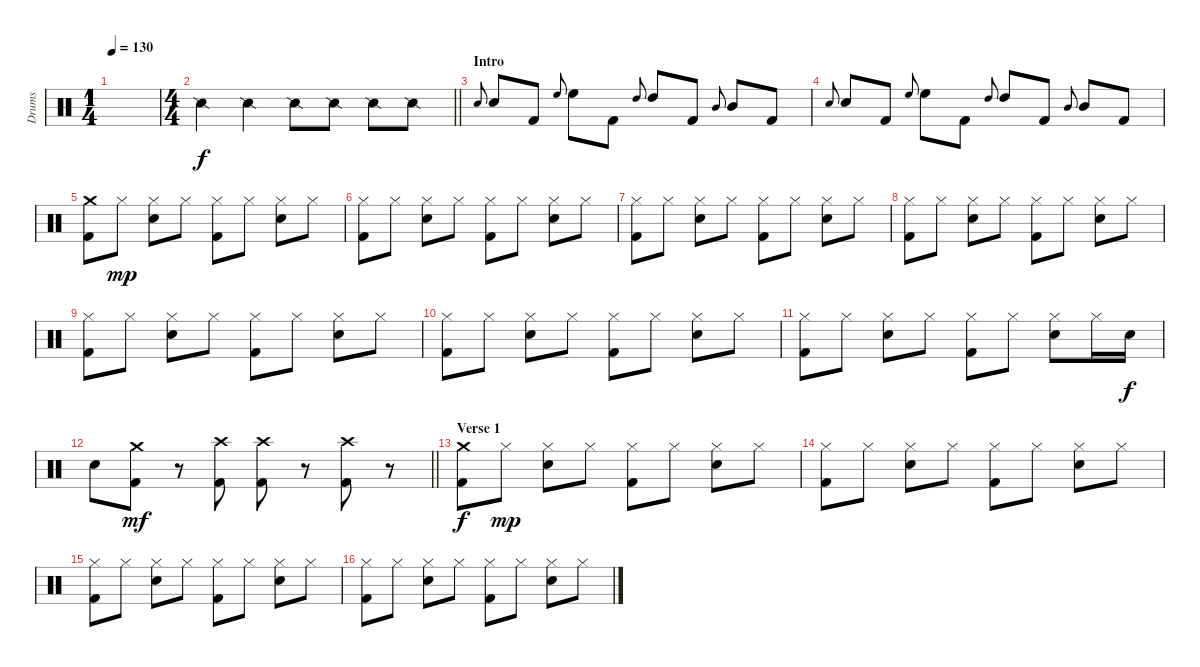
\track ("Drums" "Drums") {instrument percussion}
\staff {score}
\articulation defaults
\ts (1 4)
\tempo 130
\clef neutral
\ks c
|
\ts (4 4)
\barLineRight lightlight "Snare (side stick) 2".4 "Snare (side stick) 2".4 "Snare (side stick) 2".8 "Snare (side stick) 2".8 "Snare (side stick) 2".8 "Snare (side stick) 2".8
|
\section ("" "Intro")
"Snare (hit) 2".8{gr onbeat} "Snare (hit) 2".8 "Kick (hit) 2".8 "High Floor Tom (hit)".8{gr onbeat} "High Floor Tom (hit)".8 "Kick (hit) 2".8 "High Tom (hit)".8{gr onbeat} "High Tom (hit)".8 "Kick (hit) 2".8 "Mid Tom (hit)".8{gr onbeat} "Mid Tom (hit)".8 "Kick (hit) 2".8 |
"Snare (hit) 2".8{gr onbeat} "Snare (hit) 2".8 "Kick (hit) 2".8 "High Floor Tom (hit)".8{gr onbeat} "High Floor Tom (hit)".8 "Kick (hit) 2".8 "High Tom (hit)".8{gr onbeat} "High Tom (hit)".8 "Kick (hit) 2".8 "Mid Tom (hit)".8{gr onbeat} "Mid Tom (hit)".8 "Kick (hit) 2".8 |
("Crash medium (hit)" "Kick (hit) 2").8 "Hi-Hat (closed)".8{dy mp} ("Hi-Hat (closed)" "Snare (hit) 2").8 "Hi-Hat (closed)".8 ("Hi-Hat (closed)" "Kick (hit) 2").8 "Hi-Hat (closed)".8 ("Hi-Hat (closed)" "Snare (hit) 2").8 "Hi-Hat (closed)".8 |
("Hi-Hat (closed)" "Kick (hit) 2").8 "Hi-Hat (closed)".8 ("Hi-Hat (closed)" "Snare (hit) 2").8 "Hi-Hat (closed)".8 ("Hi-Hat (closed)" "Kick (hit) 2").8 "Hi-Hat (closed)".8 ("Hi-Hat (closed)" "Snare (hit) 2").8 "Hi-Hat (closed)".8 |
("Hi-Hat (closed)" "Kick (hit) 2").8 "Hi-Hat (closed)".8 ("Hi-Hat (closed)" "Snare (hit) 2").8 "Hi-Hat (closed)".8 ("Hi-Hat (closed)" "Kick (hit) 2").8 "Hi-Hat (closed)".8 ("Hi-Hat (closed)" "Snare (hit) 2").8 "Hi-Hat (closed)".8 |
("Hi-Hat (closed)" "Kick (hit) 2").8 "Hi-Hat (closed)".8 ("Hi-Hat (closed)" "Snare (hit) 2").8 "Hi-Hat (closed)".8 ("Hi-Hat (closed)" "Kick (hit) 2").8 "Hi-Hat (closed)".8 ("Hi-Hat (closed)" "Snare (hit) 2").8 "Hi-Hat (closed)".8 |
("Hi-Hat (closed)" "Kick (hit) 2").8 "Hi-Hat (closed)".8 ("Hi-Hat (closed)" "Snare (hit) 2").8 "Hi-Hat (closed)".8 ("Hi-Hat (closed)" "Kick (hit) 2").8 "Hi-Hat (closed)".8 ("Hi-Hat (closed)" "Snare (hit) 2").8 "Hi-Hat (closed)".8 |
("Hi-Hat (closed)" "Kick (hit) 2").8 "Hi-Hat (closed)".8 ("Hi-Hat (closed)" "Snare (hit) 2").8 "Hi-Hat (closed)".8 ("Hi-Hat (closed)" "Kick (hit) 2").8 "Hi-Hat (closed)".8 ("Hi-Hat (closed)" "Snare (hit) 2").8 "Hi-Hat (closed)".8 |
("Hi-Hat (closed)" "Kick (hit) 2").8 "Hi-Hat (closed)".8 ("Hi-Hat (closed)" "Snare (hit) 2").8 "Hi-Hat (closed)".8 ("Hi-Hat (closed)" "Kick (hit) 2").8 "Hi-Hat (closed)".8 ("Hi-Hat (closed)" "Snare (hit) 2").8 "Hi-Hat (closed)".16 "Snare (hit) 2".16{dy f} |
\barLineRight lightlight "Snare (hit) 2".8
("Crash medium (hit)" "Kick (hit) 2").8{dy mf} r.8 ("Crash high (hit)" "Kick (hit) 2").8 ("Crash high (hit)" "Kick (hit) 2").8 r.8 ("Crash high (hit)" "Kick (hit) 2").8 r.8 |
\section ("" "Verse 1")
("Crash medium (hit)" "Kick (hit) 2").8{dy f} "Hi-Hat (closed)".8{dy mp} ("Hi-Hat (closed)" "Snare (hit) 2").8 "Hi-Hat (closed)".8 ("Hi-Hat (closed)" "Kick (hit) 2").8 "Hi-Hat (closed)".8 ("Hi-Hat (closed)" "Snare (hit) 2").8 "Hi-Hat (closed)".8 |
("Hi-Hat (closed)" "Kick (hit) 2").8 "Hi-Hat (closed)".8 ("Hi-Hat (closed)" "Snare (hit) 2").8 "Hi-Hat (closed)".8 ("Hi-Hat (closed)" "Kick (hit) 2").8 "Hi-Hat (closed)".8 ("Hi-Hat (closed)" "Snare (hit) 2").8 "Hi-Hat (closed)".8 |
("Hi-Hat (closed)" "Kick (hit) 2").8 "Hi-Hat (closed)".8 ("Hi-Hat (closed)" "Snare (hit) 2").8 "Hi-Hat (closed)".8 ("Hi-Hat (closed)" "Kick (hit) 2").8 "Hi-Hat (closed)".8 ("Hi-Hat (closed)" "Snare (hit) 2").8 "Hi-Hat (closed)".8 |
("Hi-Hat (closed)" "Kick (hit) 2").8 "Hi-Hat (closed)".8 ("Hi-Hat (closed)" "Snare (hit) 2").8 "Hi-Hat (closed)".8 ("Hi-Hat (closed)" "Kick (hit) 2").8 "Hi-Hat (closed)".8 ("Hi-Hat (closed)" "Snare (hit) 2").8 "Hi-Hat (closed)".8
